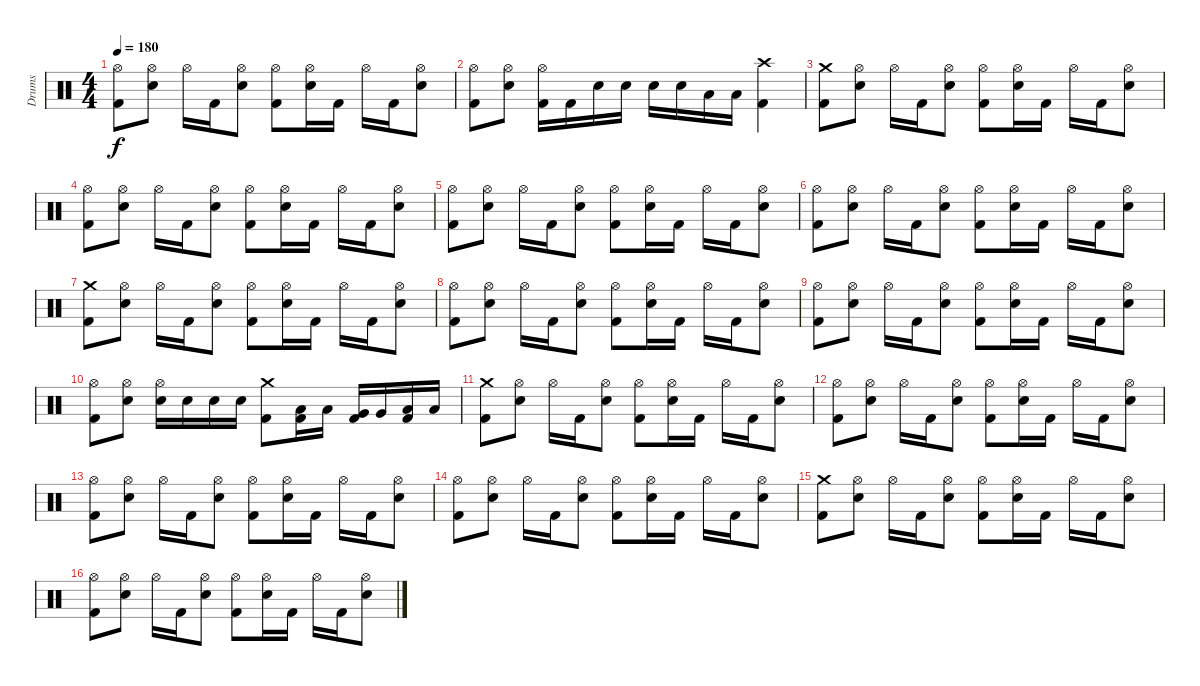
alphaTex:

\track ("Drums" "Drums") {instrument percussion}
\staff {score}
\articulation defaults
\ts (4 4)
\tempo 180
\clef neutral
\ks c
("Hi-Hat (open)" "Kick (hit) 2").8{dy f} ("Hi-Hat (open)" "Snare (hit) 2").8 "Hi-Hat (open)".16 "Kick (hit) 2".16 ("Hi-Hat (open)" "Snare (hit) 2").8 ("Hi-Hat (open)" "Kick (hit) 2").8 ("Hi-Hat (open)" "Snare (hit) 2").16 "Kick (hit) 2".16 "Hi-Hat (open)".16 "Kick (hit) 2".16 ("Hi-Hat (open)" "Snare (hit) 2").8 |
("Hi-Hat (open)" "Kick (hit) 2").8 ("Hi-Hat (open)" "Snare (hit) 2").8 ("Hi-Hat (open)" "Kick (hit) 2").16 "Kick (hit) 2".16 "Snare (hit) 2".16 "Snare (hit) 2".16 "Snare (hit) 2".16 "Snare (hit) 2".16 "Low Tom (hit)".16 "Low Tom (hit)".16 ("Crash high (hit)" "Kick (hit) 2").4 |
("Crash medium (hit)" "Kick (hit) 2").8 ("Hi-Hat (open)" "Snare (hit) 2").8 "Hi-Hat (open)".16 "Kick (hit) 2".16 ("Hi-Hat (open)" "Snare (hit) 2").8 ("Hi-Hat (open)" "Kick (hit) 2").8 ("Hi-Hat (open)" "Snare (hit) 2").16 "Kick (hit) 2".16 "Hi-Hat (open)".16 "Kick (hit) 2".16 ("Hi-Hat (open)" "Snare (hit) 2").8 |
("Hi-Hat (open)" "Kick (hit) 2").8 ("Hi-Hat (open)" "Snare (hit) 2").8 "Hi-Hat (open)".16 "Kick (hit) 2".16 ("Hi-Hat (open)" "Snare (hit) 2").8 ("Hi-Hat (open)" "Kick (hit) 2").8 ("Hi-Hat (open)" "Snare (hit) 2").16 "Kick (hit) 2".16 "Hi-Hat (open)".16 "Kick (hit) 2".16 ("Hi-Hat (open)" "Snare (hit) 2").8 |
("Hi-Hat (open)" "Kick (hit) 2").8 ("Hi-Hat (open)" "Snare (hit) 2").8 "Hi-Hat (open)".16 "Kick (hit) 2".16 ("Hi-Hat (open)" "Snare (hit) 2").8 ("Hi-Hat (open)" "Kick (hit) 2").8 ("Hi-Hat (open)" "Snare (hit) 2").16 "Kick (hit) 2".16 "Hi-Hat (open)".16 "Kick (hit) 2".16 ("Hi-Hat (open)" "Snare (hit) 2").8 |
("Hi-Hat (open)" "Kick (hit) 2").8 ("Hi-Hat (open)" "Snare (hit) 2").8 "Hi-Hat (open)".16 "Kick (hit) 2".16 ("Hi-Hat (open)" "Snare (hit) 2").8 ("Hi-Hat (open)" "Kick (hit) 2").8 ("Hi-Hat (open)" "Snare (hit) 2").16 "Kick (hit) 2".16 "Hi-Hat (open)".16 "Kick (hit) 2".16 ("Hi-Hat (open)" "Snare (hit) 2").8 |
("Crash medium (hit)" "Kick (hit) 2").8 ("Hi-Hat (open)" "Snare (hit) 2").8 "Hi-Hat (open)".16 "Kick (hit) 2".16 ("Hi-Hat (open)" "Snare (hit) 2").8 ("Hi-Hat (open)" "Kick (hit) 2").8 ("Hi-Hat (open)" "Snare (hit) 2").16 "Kick (hit) 2".16 "Hi-Hat (open)".16 "Kick (hit) 2".16 ("Hi-Hat (open)" "Snare (hit) 2").8 |
("Hi-Hat (open)" "Kick (hit) 2").8 ("Hi-Hat (open)" "Snare (hit) 2").8 "Hi-Hat (open)".16 "Kick (hit) 2".16 ("Hi-Hat (open)" "Snare (hit) 2").8 ("Hi-Hat (open)" "Kick (hit) 2").8 ("Hi-Hat (open)" "Snare (hit) 2").16 "Kick (hit) 2".16 "Hi-Hat (open)".16 "Kick (hit) 2".16 ("Hi-Hat (open)" "Snare (hit) 2").8 |
("Hi-Hat (open)" "Kick (hit) 2").8 ("Hi-Hat (open)" "Snare (hit) 2").8 "Hi-Hat (open)".16 "Kick (hit) 2".16 ("Hi-Hat (open)" "Snare (hit) 2").8 ("Hi-Hat (open)" "Kick (hit) 2").8 ("Hi-Hat (open)" "Snare (hit) 2").16 "Kick (hit) 2".16 "Hi-Hat (open)".16 "Kick (hit) 2".16 ("Hi-Hat (open)" "Snare (hit) 2").8 |
("Hi-Hat (open)" "Kick (hit) 2").8 ("Hi-Hat (open)" "Snare (hit) 2").8 ("Hi-Hat (open)" "Snare (hit) 2").16 "Snare (hit) 2".16 "Snare (hit) 2".16 "Snare (hit) 2".16 ("Crash medium (hit)" "Kick (hit) 2").8 ("Low Tom (hit)" "Kick (hit) 2").16 "Low Tom (hit)".16 ("Very Low Tom (hit)" "Kick (hit) 2").16 "Very Low Tom (hit)".16 ("Low Floor Tom (hit)" "Kick (hit) 2").16 "Low Floor Tom (hit)".16 |
("Crash medium (hit)" "Kick (hit) 2").8 ("Hi-Hat (open)" "Snare (hit) 2").8 "Hi-Hat (open)".16 "Kick (hit) 2".16 ("Hi-Hat (open)" "Snare (hit) 2").8 ("Hi-Hat (open)" "Kick (hit) 2").8 ("Hi-Hat (open)" "Snare (hit) 2").16 "Kick (hit) 2".16 "Hi-Hat (open)".16 "Kick (hit) 2".16 ("Hi-Hat (open)" "Snare (hit) 2").8 |
("Hi-Hat (open)" "Kick (hit) 2").8 ("Hi-Hat (open)" "Snare (hit) 2").8 "Hi-Hat (open)".16 "Kick (hit) 2".16 ("Hi-Hat (open)" "Snare (hit) 2").8 ("Hi-Hat (open)" "Kick (hit) 2").8 ("Hi-Hat (open)" "Snare (hit) 2").16 "Kick (hit) 2".16 "Hi-Hat (open)".16 "Kick (hit) 2".16 ("Hi-Hat (open)" "Snare (hit) 2").8 |
("Hi-Hat (open)" "Kick (hit) 2").8 ("Hi-Hat (open)" "Snare (hit) 2").8 "Hi-Hat (open)".16 "Kick (hit) 2".16 ("Hi-Hat (open)" "Snare (hit) 2").8 ("Hi-Hat (open)" "Kick (hit) 2").8 ("Hi-Hat (open)" "Snare (hit) 2").16 "Kick (hit) 2".16 "Hi-Hat (open)".16 "Kick (hit) 2".16 ("Hi-Hat (open)" "Snare (hit) 2").8 |
("Hi-Hat (open)" "Kick (hit) 2").8 ("Hi-Hat (open)" "Snare (hit) 2").8 "Hi-Hat (open)".16 "Kick (hit) 2".16 ("Hi-Hat (open)" "Snare (hit) 2").8 ("Hi-Hat (open)" "Kick (hit) 2").8 ("Hi-Hat (open)" "Snare (hit) 2").16 "Kick (hit) 2".16 "Hi-Hat (open)".16 "Kick (hit) 2".16 ("Hi-Hat (open)" "Snare (hit) 2").8 |
("Crash medium (hit)" "Kick (hit) 2").8 ("Hi-Hat (open)" "Snare (hit) 2").8 "Hi-Hat (open)".16 "Kick (hit) 2".16 ("Hi-Hat (open)" "Snare (hit) 2").8 ("Hi-Hat (open)" "Kick (hit) 2").8 ("Hi-Hat (open)" "Snare (hit) 2").16 "Kick (hit) 2".16 "Hi-Hat (open)".16 "Kick (hit) 2".16 ("Hi-Hat (open)" "Snare (hit) 2").8 |
("Hi-Hat (open)" "Kick (hit) 2").8 ("Hi-Hat (open)" "Snare (hit) 2").8 "Hi-Hat (open)".16 "Kick (hit) 2".16 ("Hi-Hat (open)" "Snare (hit) 2").8 ("Hi-Hat (open)" "Kick (hit) 2").8 ("Hi-Hat (open)" "Snare (hit) 2").16 "Kick (hit) 2".16 "Hi-Hat (open)".16 "Kick (hit) 2".16 ("Hi-Hat (open)" "Snare (hit) 2").8
